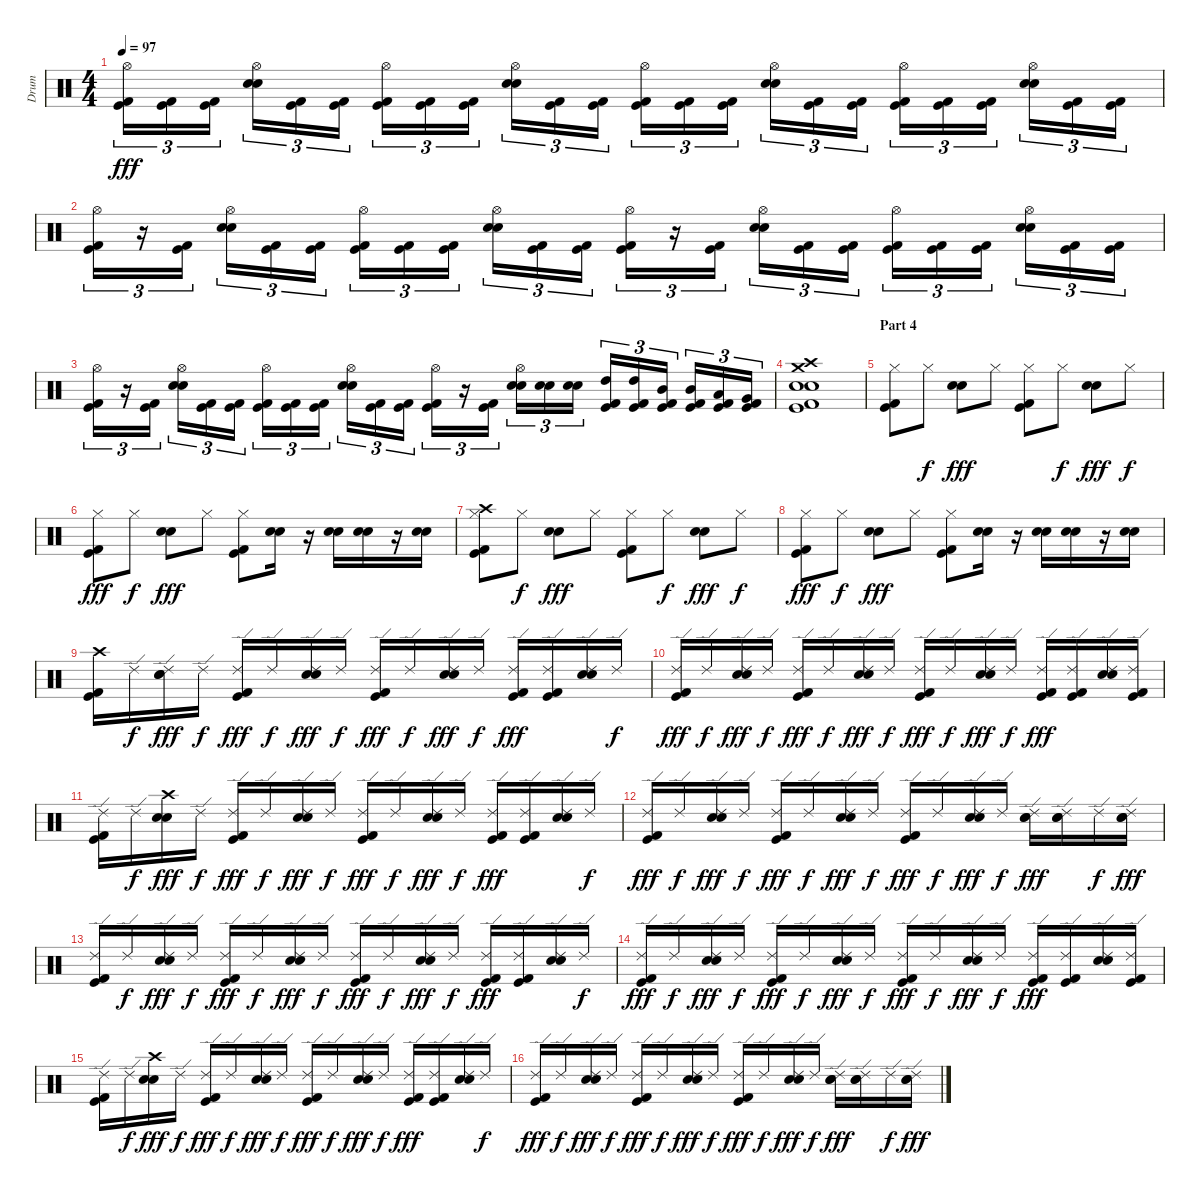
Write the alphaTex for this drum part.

\track ("Drum" "Drum") {instrument percussion}
\staff {score}
\articulation defaults
\ts (4 4)
\tempo 97
\clef neutral
\ks c
("Hi-Hat (open)" "Kick (hit)" "Kick (hit) 2").16{tu (3 2) dy fff} ("Kick (hit)" "Kick (hit) 2").16{tu (3 2)} ("Kick (hit)" "Kick (hit) 2").16{tu (3 2)} ("Hi-Hat (open)" "Electric Snare (hit)" "Snare (hit) 2").16{tu (3 2)} ("Kick (hit)" "Kick (hit) 2").16{tu (3 2)} ("Kick (hit)" "Kick (hit) 2").16{tu (3 2)} ("Hi-Hat (open)" "Kick (hit)" "Kick (hit) 2").16{tu (3 2)} ("Kick (hit)" "Kick (hit) 2").16{tu (3 2)} ("Kick (hit)" "Kick (hit) 2").16{tu (3 2)} ("Hi-Hat (open)" "Electric Snare (hit)" "Snare (hit) 2").16{tu (3 2)} ("Kick (hit)" "Kick (hit) 2").16{tu (3 2)} ("Kick (hit)" "Kick (hit) 2").16{tu (3 2)} ("Hi-Hat (open)" "Kick (hit)" "Kick (hit) 2").16{tu (3 2)} ("Kick (hit)" "Kick (hit) 2").16{tu (3 2)} ("Kick (hit)" "Kick (hit) 2").16{tu (3 2)} ("Hi-Hat (open)" "Electric Snare (hit)" "Snare (hit) 2").16{tu (3 2)} ("Kick (hit)" "Kick (hit) 2").16{tu (3 2)} ("Kick (hit)" "Kick (hit) 2").16{tu (3 2)} ("Hi-Hat (open)" "Kick (hit)" "Kick (hit) 2").16{tu (3 2)} ("Kick (hit)" "Kick (hit) 2").16{tu (3 2)} ("Kick (hit)" "Kick (hit) 2").16{tu (3 2)} ("Hi-Hat (open)" "Electric Snare (hit)" "Snare (hit) 2").16{tu (3 2)} ("Kick (hit)" "Kick (hit) 2").16{tu (3 2)} ("Kick (hit)" "Kick (hit) 2").16{tu (3 2)} |
("Hi-Hat (open)" "Kick (hit)" "Kick (hit) 2").16{tu (3 2)} r.16{tu (3 2)} ("Kick (hit)" "Kick (hit) 2").16{tu (3 2)} ("Hi-Hat (open)" "Electric Snare (hit)" "Snare (hit) 2").16{tu (3 2)} ("Kick (hit)" "Kick (hit) 2").16{tu (3 2)} ("Kick (hit)" "Kick (hit) 2").16{tu (3 2)} ("Hi-Hat (open)" "Kick (hit)" "Kick (hit) 2").16{tu (3 2)} ("Kick (hit)" "Kick (hit) 2").16{tu (3 2)} ("Kick (hit)" "Kick (hit) 2").16{tu (3 2)} ("Hi-Hat (open)" "Electric Snare (hit)" "Snare (hit) 2").16{tu (3 2)} ("Kick (hit)" "Kick (hit) 2").16{tu (3 2)} ("Kick (hit)" "Kick (hit) 2").16{tu (3 2)} ("Hi-Hat (open)" "Kick (hit)" "Kick (hit) 2").16{tu (3 2)} r.16{tu (3 2)} ("Kick (hit)" "Kick (hit) 2").16{tu (3 2)} ("Hi-Hat (open)" "Electric Snare (hit)" "Snare (hit) 2").16{tu (3 2)} ("Kick (hit)" "Kick (hit) 2").16{tu (3 2)} ("Kick (hit)" "Kick (hit) 2").16{tu (3 2)} ("Hi-Hat (open)" "Kick (hit)" "Kick (hit) 2").16{tu (3 2)} ("Kick (hit)" "Kick (hit) 2").16{tu (3 2)} ("Kick (hit)" "Kick (hit) 2").16{tu (3 2)} ("Hi-Hat (open)" "Electric Snare (hit)" "Snare (hit) 2").16{tu (3 2)} ("Kick (hit)" "Kick (hit) 2").16{tu (3 2)} ("Kick (hit)" "Kick (hit) 2").16{tu (3 2)} |
("Hi-Hat (open)" "Kick (hit)" "Kick (hit) 2").16{tu (3 2)} r.16{tu (3 2)} ("Kick (hit)" "Kick (hit) 2").16{tu (3 2)} ("Hi-Hat (open)" "Electric Snare (hit)" "Snare (hit) 2").16{tu (3 2)} ("Kick (hit)" "Kick (hit) 2").16{tu (3 2)} ("Kick (hit)" "Kick (hit) 2").16{tu (3 2)} ("Hi-Hat (open)" "Kick (hit)" "Kick (hit) 2").16{tu (3 2)} ("Kick (hit)" "Kick (hit) 2").16{tu (3 2)} ("Kick (hit)" "Kick (hit) 2").16{tu (3 2)} ("Hi-Hat (open)" "Electric Snare (hit)" "Snare (hit) 2").16{tu (3 2)} ("Kick (hit)" "Kick (hit) 2").16{tu (3 2)} ("Kick (hit)" "Kick (hit) 2").16{tu (3 2)} ("Hi-Hat (open)" "Kick (hit)" "Kick (hit) 2").16{tu (3 2)} r.16{tu (3 2)} ("Kick (hit)" "Kick (hit) 2").16{tu (3 2)} ("Hi-Hat (open)" "Electric Snare (hit)" "Snare (hit) 2").16{tu (3 2)} ("Electric Snare (hit)" "Snare (hit) 2").16{tu (3 2)} ("Electric Snare (hit)" "Snare (hit) 2").16{tu (3 2)} ("High Tom (hit)" "Kick (hit)" "Kick (hit) 2").16{tu (3 2)} ("High Tom (hit)" "Kick (hit)" "Kick (hit) 2").16{tu (3 2)} ("Mid Tom (hit)" "Kick (hit)" "Kick (hit) 2").16{tu (3 2)} ("Mid Tom (hit)" "Kick (hit)" "Kick (hit) 2").16{tu (3 2)} ("Low Tom (hit)" "Kick (hit)" "Kick (hit) 2").16{tu (3 2)} ("Very Low Tom (hit)" "Kick (hit)" "Kick (hit) 2").16{tu (3 2)} |
("Crash medium (hit)" "Crash high (hit)" "Electric Snare (hit)" "Snare (hit) 2" "Kick (hit)" "Kick (hit) 2").1 |
\section ("" "Part 4")
("Hi-Hat (closed)" "Kick (hit)" "Kick (hit) 2").8 "Hi-Hat (closed)".8{dy f} ("Electric Snare (hit)" "Snare (hit) 2").8{dy fff} "Hi-Hat (closed)".8 ("Hi-Hat (closed)" "Kick (hit)" "Kick (hit) 2").8 "Hi-Hat (closed)".8{dy f} ("Electric Snare (hit)" "Snare (hit) 2").8{dy fff} "Hi-Hat (closed)".8{dy f} |
("Hi-Hat (closed)" "Kick (hit)" "Kick (hit) 2").8{dy fff} "Hi-Hat (closed)".8{dy f} ("Electric Snare (hit)" "Snare (hit) 2").8{dy fff} "Hi-Hat (closed)".8 ("Hi-Hat (closed)" "Kick (hit)" "Kick (hit) 2").8 ("Electric Snare (hit)" "Snare (hit) 2").16 r.16 ("Electric Snare (hit)" "Snare (hit) 2").16 ("Electric Snare (hit)" "Snare (hit) 2").16 r.16 ("Electric Snare (hit)" "Snare (hit) 2").16 |
("Hi-Hat (closed)" "Kick (hit)" "Kick (hit) 2" "Crash high (hit)").8 "Hi-Hat (closed)".8{dy f} ("Electric Snare (hit)" "Snare (hit) 2").8{dy fff} "Hi-Hat (closed)".8 ("Hi-Hat (closed)" "Kick (hit)" "Kick (hit) 2").8 "Hi-Hat (closed)".8{dy f} ("Electric Snare (hit)" "Snare (hit) 2").8{dy fff} "Hi-Hat (closed)".8{dy f} |
("Hi-Hat (closed)" "Kick (hit)" "Kick (hit) 2").8{dy fff} "Hi-Hat (closed)".8{dy f} ("Electric Snare (hit)" "Snare (hit) 2").8{dy fff} "Hi-Hat (closed)".8 ("Hi-Hat (closed)" "Kick (hit)" "Kick (hit) 2").8 ("Electric Snare (hit)" "Snare (hit) 2").16 r.16 ("Electric Snare (hit)" "Snare (hit) 2").16 ("Electric Snare (hit)" "Snare (hit) 2").16 r.16 ("Electric Snare (hit)" "Snare (hit) 2").16 |
("Crash high (hit)" "Kick (hit)" "Kick (hit) 2").16 "Ride (edge) 2".16{dy f} ("Ride (edge) 2" "Electric Snare (hit)" "Snare (hit) 2").16{dy fff} "Ride (edge) 2".16{dy f} ("Ride (edge) 2" "Kick (hit)" "Kick (hit) 2").16{dy fff} "Ride (edge) 2".16{dy f} ("Ride (edge) 2" "Electric Snare (hit)" "Snare (hit) 2").16{dy fff} "Ride (edge) 2".16{dy f} ("Ride (edge) 2" "Kick (hit)" "Kick (hit) 2").16{dy fff} "Ride (edge) 2".16{dy f} ("Ride (edge) 2" "Electric Snare (hit)" "Snare (hit) 2").16{dy fff} "Ride (edge) 2".16{dy f} ("Ride (edge) 2" "Kick (hit)" "Kick (hit) 2").16{dy fff} ("Ride (edge) 2" "Kick (hit)" "Kick (hit) 2").16 ("Ride (edge) 2" "Electric Snare (hit)" "Snare (hit) 2").16 "Ride (edge) 2".16{dy f} |
("Ride (edge) 2" "Kick (hit)" "Kick (hit) 2").16{dy fff} "Ride (edge) 2".16{dy f} ("Ride (edge) 2" "Electric Snare (hit)" "Snare (hit) 2").16{dy fff} "Ride (edge) 2".16{dy f} ("Ride (edge) 2" "Kick (hit)" "Kick (hit) 2").16{dy fff} "Ride (edge) 2".16{dy f} ("Ride (edge) 2" "Electric Snare (hit)" "Snare (hit) 2").16{dy fff} "Ride (edge) 2".16{dy f} ("Ride (edge) 2" "Kick (hit)" "Kick (hit) 2").16{dy fff} "Ride (edge) 2".16{dy f} ("Ride (edge) 2" "Electric Snare (hit)" "Snare (hit) 2").16{dy fff} "Ride (edge) 2".16{dy f} ("Ride (edge) 2" "Kick (hit)" "Kick (hit) 2").16{dy fff} ("Ride (edge) 2" "Kick (hit)" "Kick (hit) 2").16 ("Ride (edge) 2" "Electric Snare (hit)" "Snare (hit) 2").16 ("Ride (edge) 2" "Kick (hit)" "Kick (hit) 2").16 |
("Ride (edge) 2" "Kick (hit)" "Kick (hit) 2").16 "Ride (edge) 2".16{dy f} ("Crash high (hit)" "Electric Snare (hit)" "Snare (hit) 2").16{dy fff} "Ride (edge) 2".16{dy f} ("Ride (edge) 2" "Kick (hit)" "Kick (hit) 2").16{dy fff} "Ride (edge) 2".16{dy f} ("Ride (edge) 2" "Electric Snare (hit)" "Snare (hit) 2").16{dy fff} "Ride (edge) 2".16{dy f} ("Ride (edge) 2" "Kick (hit)" "Kick (hit) 2").16{dy fff} "Ride (edge) 2".16{dy f} ("Ride (edge) 2" "Electric Snare (hit)" "Snare (hit) 2").16{dy fff} "Ride (edge) 2".16{dy f} ("Ride (edge) 2" "Kick (hit)" "Kick (hit) 2").16{dy fff} ("Ride (edge) 2" "Kick (hit)" "Kick (hit) 2").16 ("Ride (edge) 2" "Electric Snare (hit)" "Snare (hit) 2").16 "Ride (edge) 2".16{dy f} |
("Ride (edge) 2" "Kick (hit)" "Kick (hit) 2").16{dy fff} "Ride (edge) 2".16{dy f} ("Ride (edge) 2" "Electric Snare (hit)" "Snare (hit) 2").16{dy fff} "Ride (edge) 2".16{dy f} ("Ride (edge) 2" "Kick (hit)" "Kick (hit) 2").16{dy fff} "Ride (edge) 2".16{dy f} ("Ride (edge) 2" "Electric Snare (hit)" "Snare (hit) 2").16{dy fff} "Ride (edge) 2".16{dy f} ("Ride (edge) 2" "Kick (hit)" "Kick (hit) 2").16{dy fff} "Ride (edge) 2".16{dy f} ("Ride (edge) 2" "Electric Snare (hit)" "Snare (hit) 2").16{dy fff} "Ride (edge) 2".16{dy f} ("Ride (edge) 2" "Electric Snare (hit)" "Snare (hit) 2").16{dy fff} ("Ride (edge) 2" "Electric Snare (hit)" "Snare (hit) 2").16 "Ride (edge) 2".16{dy f} ("Ride (edge) 2" "Electric Snare (hit)" "Snare (hit) 2").16{dy fff} |
("Ride (edge) 2" "Kick (hit)" "Kick (hit) 2").16 "Ride (edge) 2".16{dy f} ("Ride (edge) 2" "Electric Snare (hit)" "Snare (hit) 2").16{dy fff} "Ride (edge) 2".16{dy f} ("Ride (edge) 2" "Kick (hit)" "Kick (hit) 2").16{dy fff} "Ride (edge) 2".16{dy f} ("Ride (edge) 2" "Electric Snare (hit)" "Snare (hit) 2").16{dy fff} "Ride (edge) 2".16{dy f} ("Ride (edge) 2" "Kick (hit)" "Kick (hit) 2").16{dy fff} "Ride (edge) 2".16{dy f} ("Ride (edge) 2" "Electric Snare (hit)" "Snare (hit) 2").16{dy fff} "Ride (edge) 2".16{dy f} ("Ride (edge) 2" "Kick (hit)" "Kick (hit) 2").16{dy fff} ("Ride (edge) 2" "Kick (hit)" "Kick (hit) 2").16 ("Ride (edge) 2" "Electric Snare (hit)" "Snare (hit) 2").16 "Ride (edge) 2".16{dy f} |
("Ride (edge) 2" "Kick (hit)" "Kick (hit) 2").16{dy fff} "Ride (edge) 2".16{dy f} ("Ride (edge) 2" "Electric Snare (hit)" "Snare (hit) 2").16{dy fff} "Ride (edge) 2".16{dy f} ("Ride (edge) 2" "Kick (hit)" "Kick (hit) 2").16{dy fff} "Ride (edge) 2".16{dy f} ("Ride (edge) 2" "Electric Snare (hit)" "Snare (hit) 2").16{dy fff} "Ride (edge) 2".16{dy f} ("Ride (edge) 2" "Kick (hit)" "Kick (hit) 2").16{dy fff} "Ride (edge) 2".16{dy f} ("Ride (edge) 2" "Electric Snare (hit)" "Snare (hit) 2").16{dy fff} "Ride (edge) 2".16{dy f} ("Ride (edge) 2" "Kick (hit)" "Kick (hit) 2").16{dy fff} ("Ride (edge) 2" "Kick (hit)" "Kick (hit) 2").16 ("Ride (edge) 2" "Electric Snare (hit)" "Snare (hit) 2").16 ("Ride (edge) 2" "Kick (hit)" "Kick (hit) 2").16 |
("Ride (edge) 2" "Kick (hit)" "Kick (hit) 2").16 "Ride (edge) 2".16{dy f} ("Crash high (hit)" "Electric Snare (hit)" "Snare (hit) 2").16{dy fff} "Ride (edge) 2".16{dy f} ("Ride (edge) 2" "Kick (hit)" "Kick (hit) 2").16{dy fff} "Ride (edge) 2".16{dy f} ("Ride (edge) 2" "Electric Snare (hit)" "Snare (hit) 2").16{dy fff} "Ride (edge) 2".16{dy f} ("Ride (edge) 2" "Kick (hit)" "Kick (hit) 2").16{dy fff} "Ride (edge) 2".16{dy f} ("Ride (edge) 2" "Electric Snare (hit)" "Snare (hit) 2").16{dy fff} "Ride (edge) 2".16{dy f} ("Ride (edge) 2" "Kick (hit)" "Kick (hit) 2").16{dy fff} ("Ride (edge) 2" "Kick (hit)" "Kick (hit) 2").16 ("Ride (edge) 2" "Electric Snare (hit)" "Snare (hit) 2").16 "Ride (edge) 2".16{dy f} |
("Ride (edge) 2" "Kick (hit)" "Kick (hit) 2").16{dy fff} "Ride (edge) 2".16{dy f} ("Ride (edge) 2" "Electric Snare (hit)" "Snare (hit) 2").16{dy fff} "Ride (edge) 2".16{dy f} ("Ride (edge) 2" "Kick (hit)" "Kick (hit) 2").16{dy fff} "Ride (edge) 2".16{dy f} ("Ride (edge) 2" "Electric Snare (hit)" "Snare (hit) 2").16{dy fff} "Ride (edge) 2".16{dy f} ("Ride (edge) 2" "Kick (hit)" "Kick (hit) 2").16{dy fff} "Ride (edge) 2".16{dy f} ("Ride (edge) 2" "Electric Snare (hit)" "Snare (hit) 2").16{dy fff} "Ride (edge) 2".16{dy f} ("Ride (edge) 2" "Electric Snare (hit)" "Snare (hit) 2").16{dy fff} ("Ride (edge) 2" "Electric Snare (hit)" "Snare (hit) 2").16 "Ride (edge) 2".16{dy f} ("Ride (edge) 2" "Electric Snare (hit)" "Snare (hit) 2").16{dy fff}
